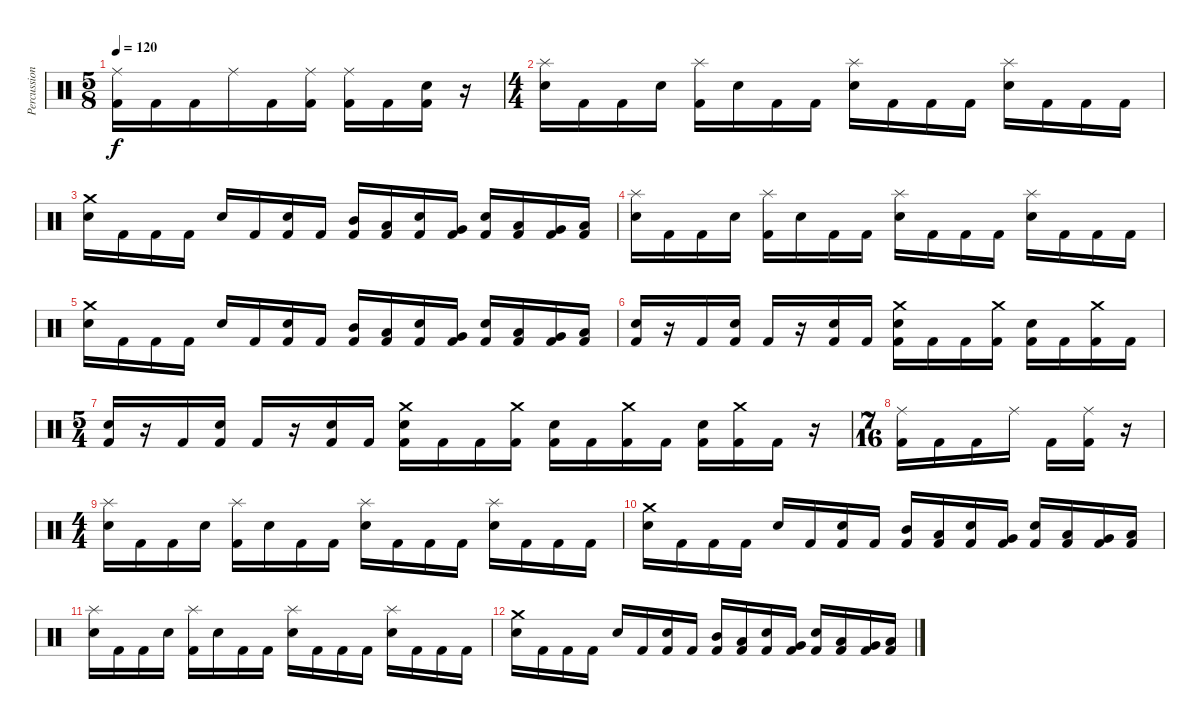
\track ("Percussion" "Percussion") {instrument percussion}
\staff {score}
\articulation defaults
\ts (5 8)
\tempo 120
\clef neutral
\ks c
("Ride (middle)" "Kick (hit) 2").16{dy f} "Kick (hit) 2".16 "Kick (hit) 2".16 "Ride (middle)".16 "Kick (hit) 2".16 ("Ride (middle)" "Kick (hit) 2").16 ("Ride (middle)" "Kick (hit) 2").16 "Kick (hit) 2".16 ("Electric Snare (hit)" "Kick (hit) 2").16 r.16 |
\ts (4 4)
("Splash (hit)" "Electric Snare (hit)").16 "Kick (hit) 2".16 "Kick (hit) 2".16 "Electric Snare (hit)".16 ("Splash (hit)" "Kick (hit) 2").16 "Electric Snare (hit)".16 "Kick (hit) 2".16 "Kick (hit) 2".16 ("Splash (hit)" "Electric Snare (hit)").16 "Kick (hit) 2".16 "Kick (hit) 2".16 "Kick (hit) 2".16 ("Splash (hit)" "Electric Snare (hit)").16 "Kick (hit) 2".16 "Kick (hit) 2".16 "Kick (hit) 2".16 |
("Crash medium (hit)" "Electric Snare (hit)").16 "Kick (hit) 2".16 "Kick (hit) 2".16 "Kick (hit) 2".16 "Electric Snare (hit)".16 "Kick (hit) 2".16 ("Electric Snare (hit)" "Kick (hit) 2").16 "Kick (hit) 2".16 ("Mid Tom (hit)" "Kick (hit) 2").16 ("Low Tom (hit)" "Kick (hit) 2").16 ("Electric Snare (hit)" "Kick (hit) 2").16 ("Very Low Tom (hit)" "Kick (hit) 2").16 ("Electric Snare (hit)" "Kick (hit) 2").16 ("Low Floor Tom (hit)" "Kick (hit) 2").16 ("Very Low Tom (hit)" "Kick (hit) 2").16 ("Low Floor Tom (hit)" "Kick (hit) 2").16 |
("Splash (hit)" "Electric Snare (hit)").16 "Kick (hit) 2".16 "Kick (hit) 2".16 "Electric Snare (hit)".16 ("Splash (hit)" "Kick (hit) 2").16 "Electric Snare (hit)".16 "Kick (hit) 2".16 "Kick (hit) 2".16 ("Splash (hit)" "Electric Snare (hit)").16 "Kick (hit) 2".16 "Kick (hit) 2".16 "Kick (hit) 2".16 ("Splash (hit)" "Electric Snare (hit)").16 "Kick (hit) 2".16 "Kick (hit) 2".16 "Kick (hit) 2".16 |
("Crash medium (hit)" "Electric Snare (hit)").16 "Kick (hit) 2".16 "Kick (hit) 2".16 "Kick (hit) 2".16 "Electric Snare (hit)".16 "Kick (hit) 2".16 ("Electric Snare (hit)" "Kick (hit) 2").16 "Kick (hit) 2".16 ("Mid Tom (hit)" "Kick (hit) 2").16 ("Low Tom (hit)" "Kick (hit) 2").16 ("Electric Snare (hit)" "Kick (hit) 2").16 ("Very Low Tom (hit)" "Kick (hit) 2").16 ("Electric Snare (hit)" "Kick (hit) 2").16 ("Low Floor Tom (hit)" "Kick (hit) 2").16 ("Very Low Tom (hit)" "Kick (hit) 2").16 ("Low Floor Tom (hit)" "Kick (hit) 2").16 |
("Electric Snare (hit)" "Kick (hit) 2").16 r.16 "Kick (hit) 2".16 ("Electric Snare (hit)" "Kick (hit) 2").16 "Kick (hit) 2".16 r.16 ("Electric Snare (hit)" "Kick (hit) 2").16 "Kick (hit) 2".16 ("Crash medium (hit)" "Electric Snare (hit)" "Kick (hit) 2").16 "Kick (hit) 2".16 "Kick (hit) 2".16 ("Crash medium (hit)" "Kick (hit) 2").16 ("Electric Snare (hit)" "Kick (hit) 2").16 "Kick (hit) 2".16 ("Crash medium (hit)" "Kick (hit) 2").16 "Kick (hit) 2".16 |
\ts (5 4)
("Electric Snare (hit)" "Kick (hit) 2").16 r.16 "Kick (hit) 2".16 ("Electric Snare (hit)" "Kick (hit) 2").16 "Kick (hit) 2".16 r.16 ("Electric Snare (hit)" "Kick (hit) 2").16 "Kick (hit) 2".16 ("Crash medium (hit)" "Electric Snare (hit)" "Kick (hit) 2").16 "Kick (hit) 2".16 "Kick (hit) 2".16 ("Crash medium (hit)" "Kick (hit) 2").16 ("Electric Snare (hit)" "Kick (hit) 2").16 "Kick (hit) 2".16 ("Crash medium (hit)" "Kick (hit) 2").16 "Kick (hit) 2".16 ("Electric Snare (hit)" "Kick (hit) 2").16 ("Crash medium (hit)" "Kick (hit) 2").16 "Kick (hit) 2".16 r.16 |
\ts (7 16)
("Ride (middle)" "Kick (hit) 2").16 "Kick (hit) 2".16 "Kick (hit) 2".16 "Ride (middle)".16 "Kick (hit) 2".16 ("Ride (middle)" "Kick (hit) 2").16 r.16 |
\ts (4 4)
("Splash (hit)" "Electric Snare (hit)").16 "Kick (hit) 2".16 "Kick (hit) 2".16 "Electric Snare (hit)".16 ("Splash (hit)" "Kick (hit) 2").16 "Electric Snare (hit)".16 "Kick (hit) 2".16 "Kick (hit) 2".16 ("Splash (hit)" "Electric Snare (hit)").16 "Kick (hit) 2".16 "Kick (hit) 2".16 "Kick (hit) 2".16 ("Splash (hit)" "Electric Snare (hit)").16 "Kick (hit) 2".16 "Kick (hit) 2".16 "Kick (hit) 2".16 |
("Crash medium (hit)" "Electric Snare (hit)").16 "Kick (hit) 2".16 "Kick (hit) 2".16 "Kick (hit) 2".16 "Electric Snare (hit)".16 "Kick (hit) 2".16 ("Electric Snare (hit)" "Kick (hit) 2").16 "Kick (hit) 2".16 ("Mid Tom (hit)" "Kick (hit) 2").16 ("Low Tom (hit)" "Kick (hit) 2").16 ("Electric Snare (hit)" "Kick (hit) 2").16 ("Very Low Tom (hit)" "Kick (hit) 2").16 ("Electric Snare (hit)" "Kick (hit) 2").16 ("Low Floor Tom (hit)" "Kick (hit) 2").16 ("Very Low Tom (hit)" "Kick (hit) 2").16 ("Low Floor Tom (hit)" "Kick (hit) 2").16 |
("Splash (hit)" "Electric Snare (hit)").16 "Kick (hit) 2".16 "Kick (hit) 2".16 "Electric Snare (hit)".16 ("Splash (hit)" "Kick (hit) 2").16 "Electric Snare (hit)".16 "Kick (hit) 2".16 "Kick (hit) 2".16 ("Splash (hit)" "Electric Snare (hit)").16 "Kick (hit) 2".16 "Kick (hit) 2".16 "Kick (hit) 2".16 ("Splash (hit)" "Electric Snare (hit)").16 "Kick (hit) 2".16 "Kick (hit) 2".16 "Kick (hit) 2".16 |
("Crash medium (hit)" "Electric Snare (hit)").16 "Kick (hit) 2".16 "Kick (hit) 2".16 "Kick (hit) 2".16 "Electric Snare (hit)".16 "Kick (hit) 2".16 ("Electric Snare (hit)" "Kick (hit) 2").16 "Kick (hit) 2".16 ("Mid Tom (hit)" "Kick (hit) 2").16 ("Low Tom (hit)" "Kick (hit) 2").16 ("Electric Snare (hit)" "Kick (hit) 2").16 ("Very Low Tom (hit)" "Kick (hit) 2").16 ("Electric Snare (hit)" "Kick (hit) 2").16 ("Low Floor Tom (hit)" "Kick (hit) 2").16 ("Very Low Tom (hit)" "Kick (hit) 2").16 ("Low Floor Tom (hit)" "Kick (hit) 2").16
